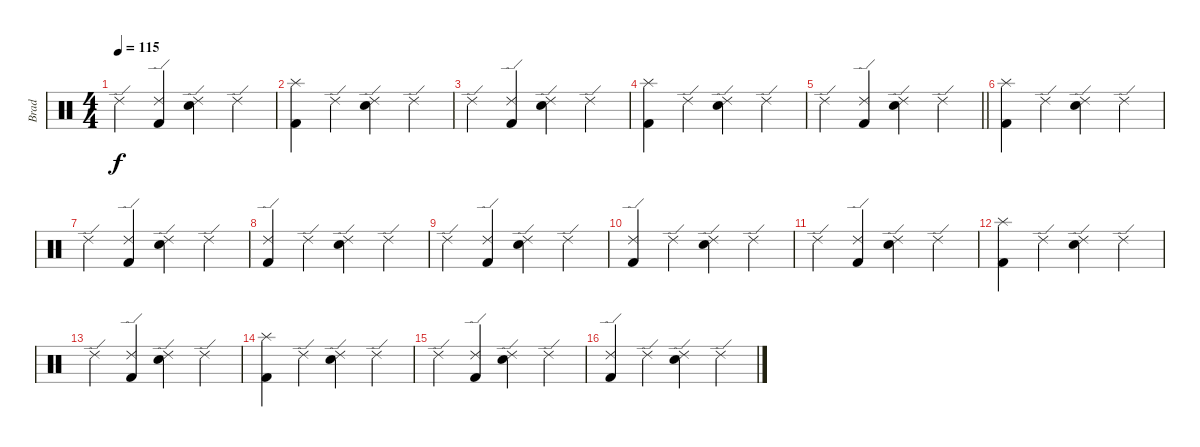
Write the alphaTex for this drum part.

\track ("Brad" "Brad") {instrument percussion}
\staff {score}
\articulation defaults
\ts (4 4)
\tempo 115
\clef neutral
\ks c "Ride (edge) 2".4{dy f}
("Ride (edge) 2" "Kick (hit) 2").4 ("Ride (edge) 2" "Electric Snare (hit)").4 "Ride (edge) 2".4 |
("Splash (hit)" "Kick (hit) 2").4 "Ride (edge) 2".4 ("Ride (edge) 2" "Electric Snare (hit)").4 "Ride (edge) 2".4 |
"Ride (edge) 2".4 ("Ride (edge) 2" "Kick (hit) 2").4 ("Ride (edge) 2" "Electric Snare (hit)").4 "Ride (edge) 2".4 |
("Splash (hit)" "Kick (hit) 2").4 "Ride (edge) 2".4 ("Ride (edge) 2" "Electric Snare (hit)").4 "Ride (edge) 2".4 |
\barLineRight lightlight "Ride (edge) 2".4
("Ride (edge) 2" "Kick (hit) 2").4 ("Ride (edge) 2" "Electric Snare (hit)").4 "Ride (edge) 2".4 |
("Splash (hit)" "Kick (hit) 2").4 "Ride (edge) 2".4 ("Ride (edge) 2" "Electric Snare (hit)").4 "Ride (edge) 2".4 |
"Ride (edge) 2".4 ("Ride (edge) 2" "Kick (hit) 2").4 ("Ride (edge) 2" "Electric Snare (hit)").4 "Ride (edge) 2".4 |
("Ride (edge) 2" "Kick (hit) 2").4 "Ride (edge) 2".4 ("Ride (edge) 2" "Electric Snare (hit)").4 "Ride (edge) 2".4 |
"Ride (edge) 2".4 ("Ride (edge) 2" "Kick (hit) 2").4 ("Ride (edge) 2" "Electric Snare (hit)").4 "Ride (edge) 2".4 |
("Ride (edge) 2" "Kick (hit) 2").4 "Ride (edge) 2".4 ("Ride (edge) 2" "Electric Snare (hit)").4 "Ride (edge) 2".4 |
"Ride (edge) 2".4 ("Ride (edge) 2" "Kick (hit) 2").4 ("Ride (edge) 2" "Electric Snare (hit)").4 "Ride (edge) 2".4 |
("Splash (hit)" "Kick (hit) 2").4 "Ride (edge) 2".4 ("Ride (edge) 2" "Electric Snare (hit)").4 "Ride (edge) 2".4 |
"Ride (edge) 2".4 ("Ride (edge) 2" "Kick (hit) 2").4 ("Ride (edge) 2" "Electric Snare (hit)").4 "Ride (edge) 2".4 |
("Splash (hit)" "Kick (hit) 2").4 "Ride (edge) 2".4 ("Ride (edge) 2" "Electric Snare (hit)").4 "Ride (edge) 2".4 |
"Ride (edge) 2".4 ("Ride (edge) 2" "Kick (hit) 2").4 ("Ride (edge) 2" "Electric Snare (hit)").4 "Ride (edge) 2".4 |
("Ride (edge) 2" "Kick (hit) 2").4 "Ride (edge) 2".4 ("Ride (edge) 2" "Electric Snare (hit)").4 "Ride (edge) 2".4
